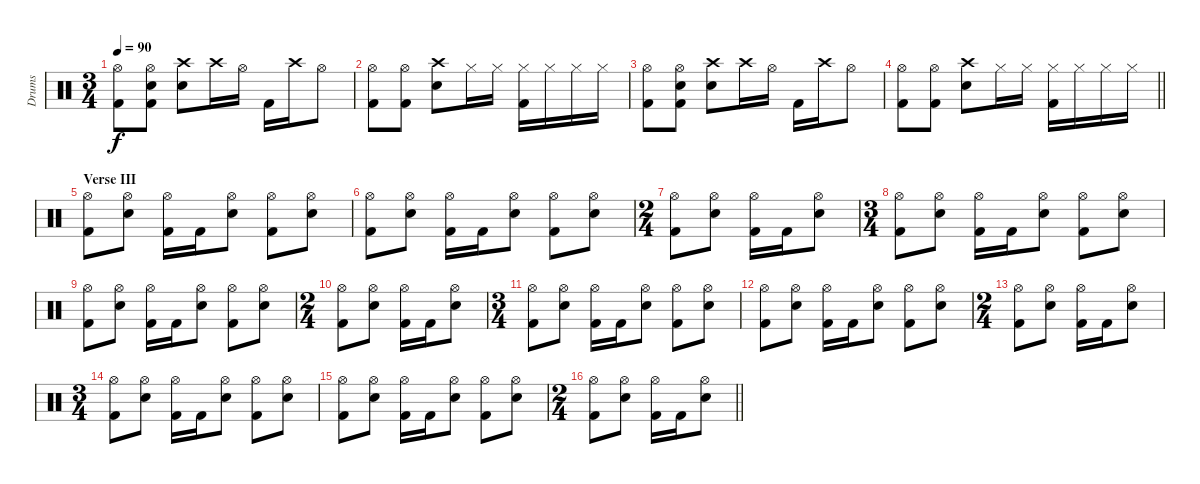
\track ("Drums" "Drums") {instrument percussion}
\staff {score}
\articulation defaults
\ts (3 4)
\tempo 90
\clef neutral
\ks c
("Hi-Hat (open)" "Kick (hit) 2").8{dy f} ("Hi-Hat (open)" "Snare (hit) 2" "Kick (hit) 2").8 ("Crash high (hit)" "Snare (hit) 2").8 "Crash high (hit)".16 "Hi-Hat (open)".16 "Kick (hit) 2".16 "Crash high (hit)".16 "Hi-Hat (open)".8 |
("Hi-Hat (open)" "Kick (hit) 2").8 ("Hi-Hat (open)" "Kick (hit) 2").8 ("Crash high (hit)" "Snare (hit) 2").8 "Hi-Hat (closed)".16 "Hi-Hat (closed)".16 ("Hi-Hat (closed)" "Kick (hit) 2").16 "Hi-Hat (closed)".16 "Hi-Hat (closed)".16 "Hi-Hat (closed)".16 |
("Hi-Hat (open)" "Kick (hit) 2").8 ("Hi-Hat (open)" "Snare (hit) 2" "Kick (hit) 2").8 ("Crash high (hit)" "Snare (hit) 2").8 "Crash high (hit)".16 "Hi-Hat (open)".16 "Kick (hit) 2".16 "Crash high (hit)".16 "Hi-Hat (open)".8 |
\barLineRight lightlight
("Hi-Hat (open)" "Kick (hit) 2").8 ("Hi-Hat (open)" "Kick (hit) 2").8 ("Crash high (hit)" "Snare (hit) 2").8 "Hi-Hat (closed)".16 "Hi-Hat (closed)".16 ("Hi-Hat (closed)" "Kick (hit) 2").16 "Hi-Hat (closed)".16 "Hi-Hat (closed)".16 "Hi-Hat (closed)".16 |
\section ("" "Verse III")
("Hi-Hat (open)" "Kick (hit) 2").8 ("Hi-Hat (open)" "Snare (hit) 2").8 ("Hi-Hat (open)" "Kick (hit) 2").16 "Kick (hit) 2".16 ("Hi-Hat (open)" "Snare (hit) 2").8 ("Hi-Hat (open)" "Kick (hit) 2").8 ("Hi-Hat (open)" "Snare (hit) 2").8 |
("Hi-Hat (open)" "Kick (hit) 2").8 ("Hi-Hat (open)" "Snare (hit) 2").8 ("Hi-Hat (open)" "Kick (hit) 2").16 "Kick (hit) 2".16 ("Hi-Hat (open)" "Snare (hit) 2").8 ("Hi-Hat (open)" "Kick (hit) 2").8 ("Hi-Hat (open)" "Snare (hit) 2").8 |
\ts (2 4)
("Hi-Hat (open)" "Kick (hit) 2").8 ("Hi-Hat (open)" "Snare (hit) 2").8 ("Hi-Hat (open)" "Kick (hit) 2").16 "Kick (hit) 2".16 ("Hi-Hat (open)" "Snare (hit) 2").8 |
\ts (3 4)
("Hi-Hat (open)" "Kick (hit) 2").8 ("Hi-Hat (open)" "Snare (hit) 2").8 ("Hi-Hat (open)" "Kick (hit) 2").16 "Kick (hit) 2".16 ("Hi-Hat (open)" "Snare (hit) 2").8 ("Hi-Hat (open)" "Kick (hit) 2").8 ("Hi-Hat (open)" "Snare (hit) 2").8 |
("Hi-Hat (open)" "Kick (hit) 2").8 ("Hi-Hat (open)" "Snare (hit) 2").8 ("Hi-Hat (open)" "Kick (hit) 2").16 "Kick (hit) 2".16 ("Hi-Hat (open)" "Snare (hit) 2").8 ("Hi-Hat (open)" "Kick (hit) 2").8 ("Hi-Hat (open)" "Snare (hit) 2").8 |
\ts (2 4)
("Hi-Hat (open)" "Kick (hit) 2").8 ("Hi-Hat (open)" "Snare (hit) 2").8 ("Hi-Hat (open)" "Kick (hit) 2").16 "Kick (hit) 2".16 ("Hi-Hat (open)" "Snare (hit) 2").8 |
\ts (3 4)
("Hi-Hat (open)" "Kick (hit) 2").8 ("Hi-Hat (open)" "Snare (hit) 2").8 ("Hi-Hat (open)" "Kick (hit) 2").16 "Kick (hit) 2".16 ("Hi-Hat (open)" "Snare (hit) 2").8 ("Hi-Hat (open)" "Kick (hit) 2").8 ("Hi-Hat (open)" "Snare (hit) 2").8 |
("Hi-Hat (open)" "Kick (hit) 2").8 ("Hi-Hat (open)" "Snare (hit) 2").8 ("Hi-Hat (open)" "Kick (hit) 2").16 "Kick (hit) 2".16 ("Hi-Hat (open)" "Snare (hit) 2").8 ("Hi-Hat (open)" "Kick (hit) 2").8 ("Hi-Hat (open)" "Snare (hit) 2").8 |
\ts (2 4)
("Hi-Hat (open)" "Kick (hit) 2").8 ("Hi-Hat (open)" "Snare (hit) 2").8 ("Hi-Hat (open)" "Kick (hit) 2").16 "Kick (hit) 2".16 ("Hi-Hat (open)" "Snare (hit) 2").8 |
\ts (3 4)
("Hi-Hat (open)" "Kick (hit) 2").8 ("Hi-Hat (open)" "Snare (hit) 2").8 ("Hi-Hat (open)" "Kick (hit) 2").16 "Kick (hit) 2".16 ("Hi-Hat (open)" "Snare (hit) 2").8 ("Hi-Hat (open)" "Kick (hit) 2").8 ("Hi-Hat (open)" "Snare (hit) 2").8 |
("Hi-Hat (open)" "Kick (hit) 2").8 ("Hi-Hat (open)" "Snare (hit) 2").8 ("Hi-Hat (open)" "Kick (hit) 2").16 "Kick (hit) 2".16 ("Hi-Hat (open)" "Snare (hit) 2").8 ("Hi-Hat (open)" "Kick (hit) 2").8 ("Hi-Hat (open)" "Snare (hit) 2").8 |
\ts (2 4)
\barLineRight lightlight
("Hi-Hat (open)" "Kick (hit) 2").8 ("Hi-Hat (open)" "Snare (hit) 2").8 ("Hi-Hat (open)" "Kick (hit) 2").16 "Kick (hit) 2".16 ("Hi-Hat (open)" "Snare (hit) 2").8
